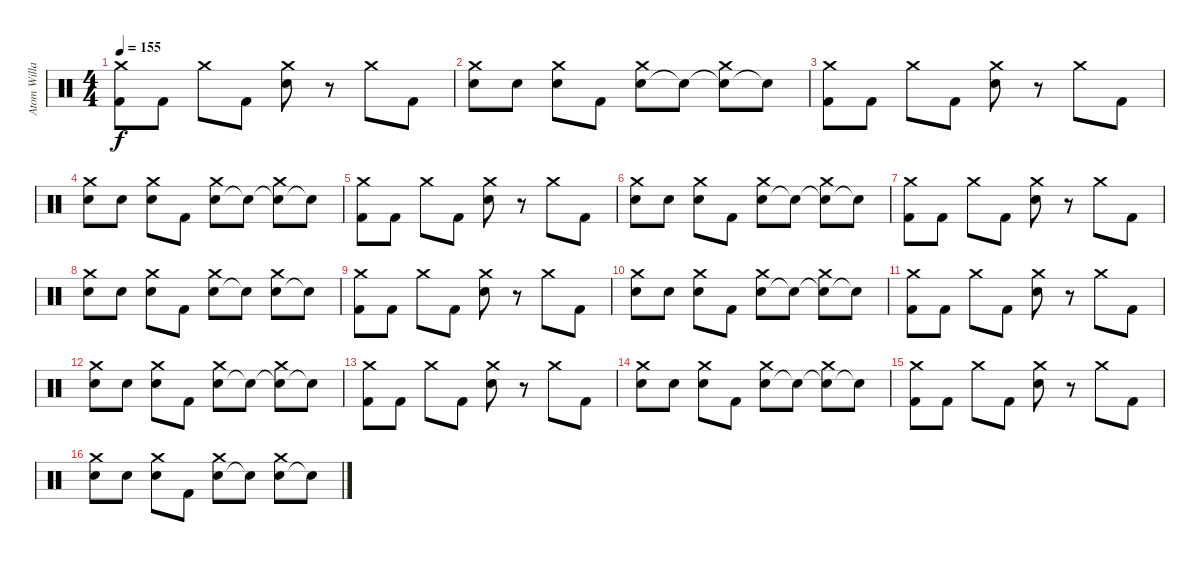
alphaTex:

\track ("Atom Willard - Drums" "Atom Willa") {instrument percussion}
\staff {score}
\articulation defaults
\ts (4 4)
\tempo 155
\clef neutral
\ks c
("Kick (hit) 2" "Crash medium (hit)").8{dy f} "Kick (hit) 2".8 "Crash medium (hit)".8 "Kick (hit) 2".8 ("Electric Snare (hit)" "Crash medium (hit)").8 r.8 "Crash medium (hit)".8 "Kick (hit) 2".8 |
("Snare (hit)" "Crash medium (hit)").8 "Electric Snare (hit)".8 ("Snare (hit)" "Crash medium (hit)").8 "Kick (hit) 2".8 ("Electric Snare (hit)" "Crash medium (hit)").8 "Snare (hit)"{t}.8 ("Snare (hit)"{t} "Crash medium (hit)").8 "Snare (hit)"{t}.8 |
("Kick (hit) 2" "Crash medium (hit)").8 "Kick (hit) 2".8 "Crash medium (hit)".8 "Kick (hit) 2".8 ("Electric Snare (hit)" "Crash medium (hit)").8 r.8 "Crash medium (hit)".8 "Kick (hit) 2".8 |
("Snare (hit)" "Crash medium (hit)").8 "Electric Snare (hit)".8 ("Snare (hit)" "Crash medium (hit)").8 "Kick (hit) 2".8 ("Electric Snare (hit)" "Crash medium (hit)").8 "Snare (hit)"{t}.8 ("Snare (hit)"{t} "Crash medium (hit)").8 "Snare (hit)"{t}.8 |
("Kick (hit) 2" "Crash medium (hit)").8 "Kick (hit) 2".8 "Crash medium (hit)".8 "Kick (hit) 2".8 ("Electric Snare (hit)" "Crash medium (hit)").8 r.8 "Crash medium (hit)".8 "Kick (hit) 2".8 |
("Snare (hit)" "Crash medium (hit)").8 "Electric Snare (hit)".8 ("Snare (hit)" "Crash medium (hit)").8 "Kick (hit) 2".8 ("Electric Snare (hit)" "Crash medium (hit)").8 "Snare (hit)"{t}.8 ("Snare (hit)"{t} "Crash medium (hit)").8 "Snare (hit)"{t}.8 |
("Kick (hit) 2" "Crash medium (hit)").8 "Kick (hit) 2".8 "Crash medium (hit)".8 "Kick (hit) 2".8 ("Electric Snare (hit)" "Crash medium (hit)").8 r.8 "Crash medium (hit)".8 "Kick (hit) 2".8 |
("Snare (hit)" "Crash medium (hit)").8 "Electric Snare (hit)".8 ("Snare (hit)" "Crash medium (hit)").8 "Kick (hit) 2".8 ("Electric Snare (hit)" "Crash medium (hit)").8 "Snare (hit)"{t}.8 ("Electric Snare (hit)" "Crash medium (hit)").8 "Snare (hit)"{t}.8 |
("Kick (hit) 2" "Crash medium (hit)").8 "Kick (hit) 2".8 "Crash medium (hit)".8 "Kick (hit) 2".8 ("Electric Snare (hit)" "Crash medium (hit)").8 r.8 "Crash medium (hit)".8 "Kick (hit) 2".8 |
("Snare (hit)" "Crash medium (hit)").8 "Electric Snare (hit)".8 ("Snare (hit)" "Crash medium (hit)").8 "Kick (hit) 2".8 ("Electric Snare (hit)" "Crash medium (hit)").8 "Snare (hit)"{t}.8 ("Snare (hit)"{t} "Crash medium (hit)").8 "Snare (hit)"{t}.8 |
("Kick (hit) 2" "Crash medium (hit)").8 "Kick (hit) 2".8 "Crash medium (hit)".8 "Kick (hit) 2".8 ("Electric Snare (hit)" "Crash medium (hit)").8 r.8 "Crash medium (hit)".8 "Kick (hit) 2".8 |
("Snare (hit)" "Crash medium (hit)").8 "Electric Snare (hit)".8 ("Snare (hit)" "Crash medium (hit)").8 "Kick (hit) 2".8 ("Electric Snare (hit)" "Crash medium (hit)").8 "Snare (hit)"{t}.8 ("Snare (hit)"{t} "Crash medium (hit)").8 "Snare (hit)"{t}.8 |
("Kick (hit) 2" "Crash medium (hit)").8 "Kick (hit) 2".8 "Crash medium (hit)".8 "Kick (hit) 2".8 ("Electric Snare (hit)" "Crash medium (hit)").8 r.8 "Crash medium (hit)".8 "Kick (hit) 2".8 |
("Snare (hit)" "Crash medium (hit)").8 "Electric Snare (hit)".8 ("Snare (hit)" "Crash medium (hit)").8 "Kick (hit) 2".8 ("Electric Snare (hit)" "Crash medium (hit)").8 "Snare (hit)"{t}.8 ("Snare (hit)"{t} "Crash medium (hit)").8 "Snare (hit)"{t}.8 |
("Kick (hit) 2" "Crash medium (hit)").8 "Kick (hit) 2".8 "Crash medium (hit)".8 "Kick (hit) 2".8 ("Electric Snare (hit)" "Crash medium (hit)").8 r.8 "Crash medium (hit)".8 "Kick (hit) 2".8 |
("Snare (hit)" "Crash medium (hit)").8 "Electric Snare (hit)".8 ("Snare (hit)" "Crash medium (hit)").8 "Kick (hit) 2".8 ("Electric Snare (hit)" "Crash medium (hit)").8 "Snare (hit)"{t}.8 ("Electric Snare (hit)" "Crash medium (hit)").8 "Snare (hit)"{t}.8
